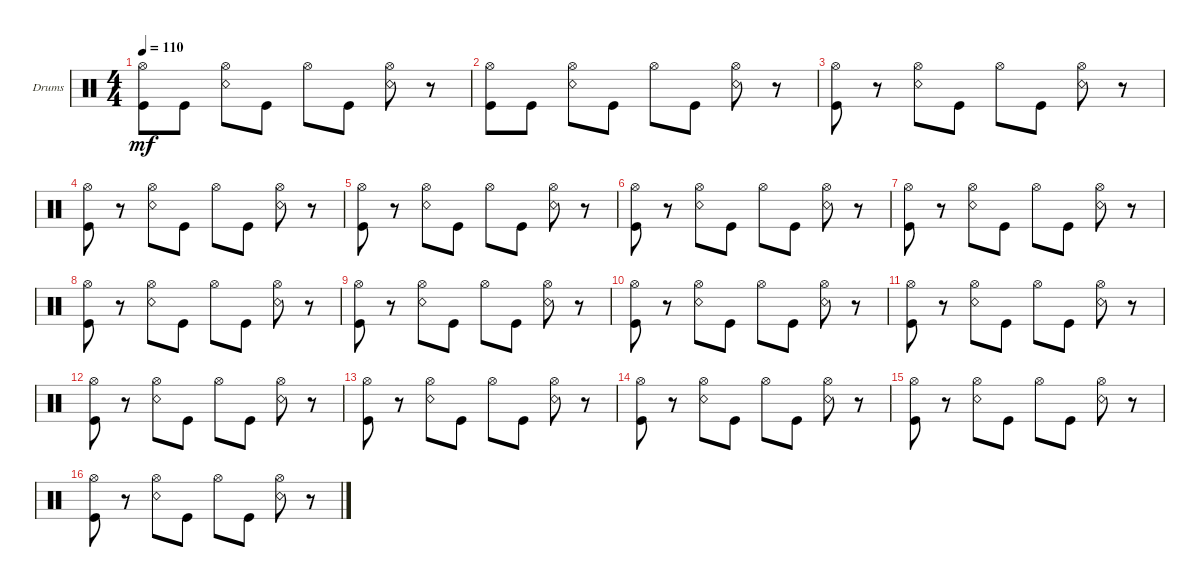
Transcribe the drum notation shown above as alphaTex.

\defaultSystemsLayout 4
\bracketExtendMode groupsimilarinstruments
\firstSystemTrackNameOrientation horizontal
\otherSystemsTrackNameOrientation horizontal
\track ("Drumkit" "Drums") {instrument percussion}
\staff {score}
\articulation defaults
\ts (4 4)
\tempo 110
\clef neutral
\scale
0.333333
\ks c
("Kick (hit)" "Hi-Hat (open)").8{dy mf} "Kick (hit)".8 ("Hi-Hat (open)" "Snare (rim shot)").8 "Kick (hit)".8 "Hi-Hat (open)".8 "Kick (hit)".8 ("Snare (rim shot)" "Hi-Hat (open)").8 r.8 |
\scale
0.333333 ("Kick (hit)" "Hi-Hat (open)").8 "Kick (hit)".8 ("Hi-Hat (open)" "Snare (rim shot)").8 "Kick (hit)".8 "Hi-Hat (open)".8 "Kick (hit)".8 ("Snare (rim shot)" "Hi-Hat (open)").8 r.8 |
("Kick (hit)" "Hi-Hat (open)").8 r.8 ("Hi-Hat (open)" "Snare (rim shot)").8 "Kick (hit)".8 "Hi-Hat (open)".8 "Kick (hit)".8 ("Snare (rim shot)" "Hi-Hat (open)").8 r.8 |
("Kick (hit)" "Hi-Hat (open)").8 r.8 ("Hi-Hat (open)" "Snare (rim shot)").8 "Kick (hit)".8 "Hi-Hat (open)".8 "Kick (hit)".8 ("Snare (rim shot)" "Hi-Hat (open)").8 r.8 |
("Kick (hit)" "Hi-Hat (open)").8 r.8 ("Hi-Hat (open)" "Snare (rim shot)").8 "Kick (hit)".8 "Hi-Hat (open)".8 "Kick (hit)".8 ("Snare (rim shot)" "Hi-Hat (open)").8 r.8 |
("Kick (hit)" "Hi-Hat (open)").8 r.8 ("Hi-Hat (open)" "Snare (rim shot)").8 "Kick (hit)".8 "Hi-Hat (open)".8 "Kick (hit)".8 ("Snare (rim shot)" "Hi-Hat (open)").8 r.8 |
("Kick (hit)" "Hi-Hat (open)").8 r.8 ("Hi-Hat (open)" "Snare (rim shot)").8 "Kick (hit)".8 "Hi-Hat (open)".8 "Kick (hit)".8 ("Snare (rim shot)" "Hi-Hat (open)").8 r.8 |
("Kick (hit)" "Hi-Hat (open)").8 r.8 ("Hi-Hat (open)" "Snare (rim shot)").8 "Kick (hit)".8 "Hi-Hat (open)".8 "Kick (hit)".8 ("Snare (rim shot)" "Hi-Hat (open)").8 r.8 |
("Kick (hit)" "Hi-Hat (open)").8 r.8 ("Hi-Hat (open)" "Snare (rim shot)").8 "Kick (hit)".8 "Hi-Hat (open)".8 "Kick (hit)".8 ("Snare (rim shot)" "Hi-Hat (open)").8 r.8 |
("Kick (hit)" "Hi-Hat (open)").8 r.8 ("Hi-Hat (open)" "Snare (rim shot)").8 "Kick (hit)".8 "Hi-Hat (open)".8 "Kick (hit)".8 ("Snare (rim shot)" "Hi-Hat (open)").8 r.8 |
("Kick (hit)" "Hi-Hat (open)").8 r.8 ("Hi-Hat (open)" "Snare (rim shot)").8 "Kick (hit)".8 "Hi-Hat (open)".8 "Kick (hit)".8 ("Snare (rim shot)" "Hi-Hat (open)").8 r.8 |
("Kick (hit)" "Hi-Hat (open)").8 r.8 ("Hi-Hat (open)" "Snare (rim shot)").8 "Kick (hit)".8 "Hi-Hat (open)".8 "Kick (hit)".8 ("Snare (rim shot)" "Hi-Hat (open)").8 r.8 |
("Kick (hit)" "Hi-Hat (open)").8 r.8 ("Hi-Hat (open)" "Snare (rim shot)").8 "Kick (hit)".8 "Hi-Hat (open)".8 "Kick (hit)".8 ("Snare (rim shot)" "Hi-Hat (open)").8 r.8 |
("Kick (hit)" "Hi-Hat (open)").8 r.8 ("Hi-Hat (open)" "Snare (rim shot)").8 "Kick (hit)".8 "Hi-Hat (open)".8 "Kick (hit)".8 ("Snare (rim shot)" "Hi-Hat (open)").8 r.8 |
("Kick (hit)" "Hi-Hat (open)").8 r.8 ("Hi-Hat (open)" "Snare (rim shot)").8 "Kick (hit)".8 "Hi-Hat (open)".8 "Kick (hit)".8 ("Snare (rim shot)" "Hi-Hat (open)").8 r.8 |
("Kick (hit)" "Hi-Hat (open)").8 r.8 ("Hi-Hat (open)" "Snare (rim shot)").8 "Kick (hit)".8 "Hi-Hat (open)".8 "Kick (hit)".8 ("Snare (rim shot)" "Hi-Hat (open)").8 r.8
